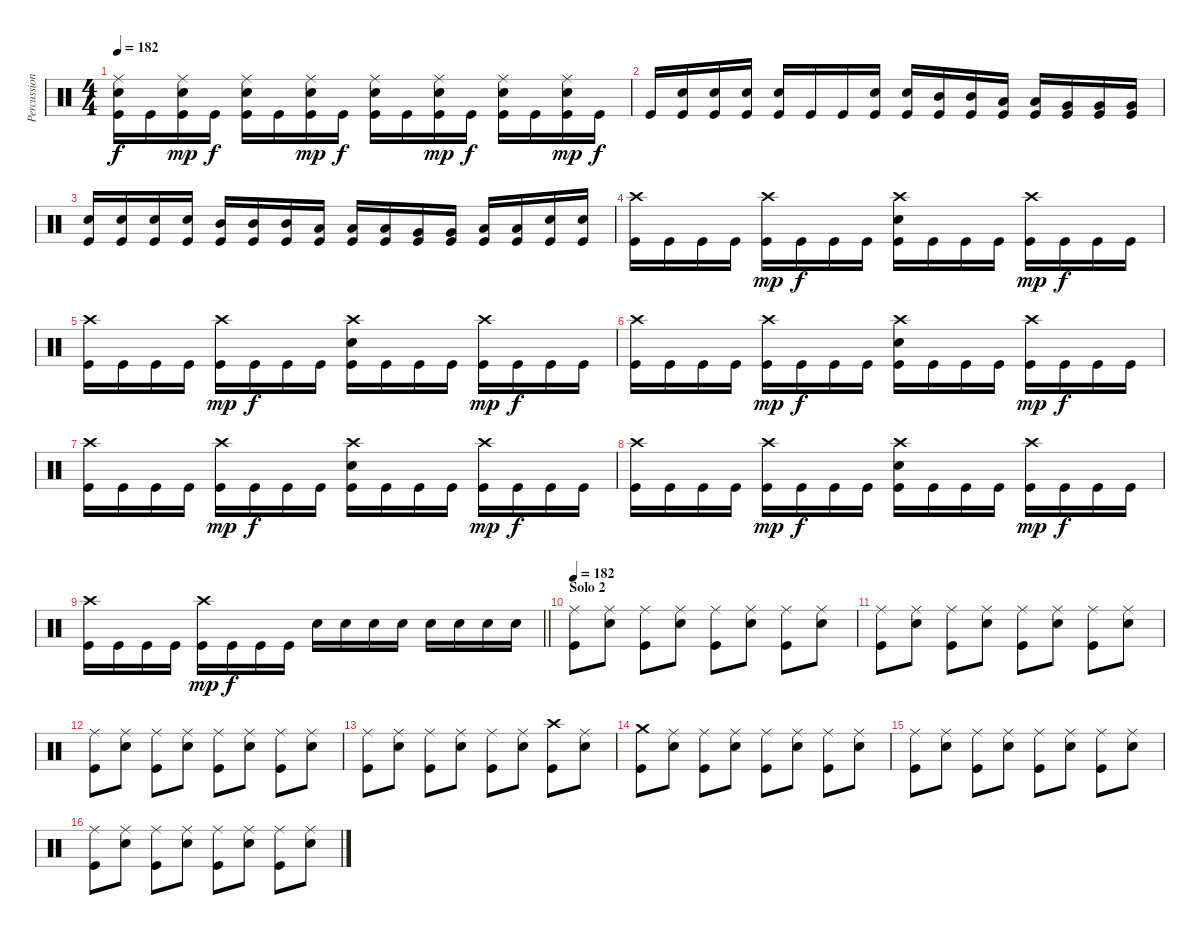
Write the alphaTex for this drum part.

\track ("Percussion" "Percussion") {instrument percussion}
\staff {score}
\articulation defaults
\ts (4 4)
\tempo 182
\clef neutral
\ks c
("Ride (middle)" "Snare (hit) 2" "Kick (hit)").16{dy f} "Kick (hit)".16 ("Ride (middle)" "Snare (hit) 2" "Kick (hit)").16{dy mp} "Kick (hit)".16{dy f} ("Ride (middle)" "Snare (hit) 2" "Kick (hit)").16 "Kick (hit)".16 ("Ride (middle)" "Snare (hit) 2" "Kick (hit)").16{dy mp} "Kick (hit)".16{dy f} ("Ride (middle)" "Snare (hit) 2" "Kick (hit)").16 "Kick (hit)".16 ("Ride (middle)" "Snare (hit) 2" "Kick (hit)").16{dy mp} "Kick (hit)".16{dy f} ("Ride (middle)" "Snare (hit) 2" "Kick (hit)").16 "Kick (hit)".16 ("Ride (middle)" "Snare (hit) 2" "Kick (hit)").16{dy mp} "Kick (hit)".16{dy f} |
"Kick (hit)".16 ("Kick (hit)" "Snare (hit) 2").16 ("Kick (hit)" "Snare (hit) 2").16 ("Kick (hit)" "Snare (hit) 2").16 ("Kick (hit)" "Snare (hit) 2").16 "Kick (hit)".16 "Kick (hit)".16 ("Kick (hit)" "Snare (hit) 2").16 ("Kick (hit)" "Snare (hit) 2").16 ("Kick (hit)" "Mid Tom (hit)").16 ("Kick (hit)" "Mid Tom (hit)").16 ("Kick (hit)" "Low Tom (hit)").16 ("Kick (hit)" "Low Tom (hit)").16 ("Kick (hit)" "Very Low Tom (hit)").16 ("Kick (hit)" "Very Low Tom (hit)").16 ("Kick (hit)" "Very Low Tom (hit)").16 |
("Snare (hit) 2" "Kick (hit)").16 ("Snare (hit) 2" "Kick (hit)").16 ("Snare (hit) 2" "Kick (hit)").16 ("Snare (hit) 2" "Kick (hit)").16 ("Mid Tom (hit)" "Kick (hit)").16 ("Mid Tom (hit)" "Kick (hit)").16 ("Mid Tom (hit)" "Kick (hit)").16 ("Low Tom (hit)" "Kick (hit)").16 ("Low Tom (hit)" "Kick (hit)").16 ("Low Tom (hit)" "Kick (hit)").16 ("Very Low Tom (hit)" "Kick (hit)").16 ("Very Low Tom (hit)" "Kick (hit)").16 ("Low Floor Tom (hit)" "Kick (hit)").16 ("Low Floor Tom (hit)" "Kick (hit)").16 ("Snare (hit) 2" "Kick (hit)").16 ("Snare (hit) 2" "Kick (hit)").16 |
("Crash high (hit)" "Kick (hit)").16 "Kick (hit)".16 "Kick (hit)".16 "Kick (hit)".16 ("Crash high (hit)" "Kick (hit)").16{dy mp} "Kick (hit)".16{dy f} "Kick (hit)".16 "Kick (hit)".16 ("Crash high (hit)" "Snare (hit) 2" "Kick (hit)").16 "Kick (hit)".16 "Kick (hit)".16 "Kick (hit)".16 ("Crash high (hit)" "Kick (hit)").16{dy mp} "Kick (hit)".16{dy f} "Kick (hit)".16 "Kick (hit)".16 |
("Crash high (hit)" "Kick (hit)").16 "Kick (hit)".16 "Kick (hit)".16 "Kick (hit)".16 ("Crash high (hit)" "Kick (hit)").16{dy mp} "Kick (hit)".16{dy f} "Kick (hit)".16 "Kick (hit)".16 ("Crash high (hit)" "Snare (hit) 2" "Kick (hit)").16 "Kick (hit)".16 "Kick (hit)".16 "Kick (hit)".16 ("Crash high (hit)" "Kick (hit)").16{dy mp} "Kick (hit)".16{dy f} "Kick (hit)".16 "Kick (hit)".16 |
("Crash high (hit)" "Kick (hit)").16 "Kick (hit)".16 "Kick (hit)".16 "Kick (hit)".16 ("Crash high (hit)" "Kick (hit)").16{dy mp} "Kick (hit)".16{dy f} "Kick (hit)".16 "Kick (hit)".16 ("Crash high (hit)" "Snare (hit) 2" "Kick (hit)").16 "Kick (hit)".16 "Kick (hit)".16 "Kick (hit)".16 ("Crash high (hit)" "Kick (hit)").16{dy mp} "Kick (hit)".16{dy f} "Kick (hit)".16 "Kick (hit)".16 |
("Crash high (hit)" "Kick (hit)").16 "Kick (hit)".16 "Kick (hit)".16 "Kick (hit)".16 ("Crash high (hit)" "Kick (hit)").16{dy mp} "Kick (hit)".16{dy f} "Kick (hit)".16 "Kick (hit)".16 ("Crash high (hit)" "Snare (hit) 2" "Kick (hit)").16 "Kick (hit)".16 "Kick (hit)".16 "Kick (hit)".16 ("Crash high (hit)" "Kick (hit)").16{dy mp} "Kick (hit)".16{dy f} "Kick (hit)".16 "Kick (hit)".16 |
("Crash high (hit)" "Kick (hit)").16 "Kick (hit)".16 "Kick (hit)".16 "Kick (hit)".16 ("Crash high (hit)" "Kick (hit)").16{dy mp} "Kick (hit)".16{dy f} "Kick (hit)".16 "Kick (hit)".16 ("Crash high (hit)" "Snare (hit) 2" "Kick (hit)").16 "Kick (hit)".16 "Kick (hit)".16 "Kick (hit)".16 ("Crash high (hit)" "Kick (hit)").16{dy mp} "Kick (hit)".16{dy f} "Kick (hit)".16 "Kick (hit)".16 |
\barLineRight lightlight
("Crash high (hit)" "Kick (hit)").16 "Kick (hit)".16 "Kick (hit)".16 "Kick (hit)".16 ("Crash high (hit)" "Kick (hit)").16{dy mp} "Kick (hit)".16{dy f} "Kick (hit)".16 "Kick (hit)".16 "Snare (hit) 2".16 "Snare (hit) 2".16 "Snare (hit) 2".16 "Snare (hit) 2".16 "Snare (hit) 2".16 "Snare (hit) 2".16 "Snare (hit) 2".16 "Snare (hit) 2".16 |
\section ("" "Solo 2")
\tempo 182
("Ride (middle)" "Kick (hit)").8 ("Ride (middle)" "Snare (hit) 2").8 ("Ride (middle)" "Kick (hit)").8 ("Ride (middle)" "Snare (hit) 2").8 ("Ride (middle)" "Kick (hit)").8 ("Ride (middle)" "Snare (hit) 2").8 ("Ride (middle)" "Kick (hit)").8 ("Ride (middle)" "Snare (hit) 2").8 |
("Ride (middle)" "Kick (hit)").8 ("Ride (middle)" "Snare (hit) 2").8 ("Ride (middle)" "Kick (hit)").8 ("Ride (middle)" "Snare (hit) 2").8 ("Ride (middle)" "Kick (hit)").8 ("Ride (middle)" "Snare (hit) 2").8 ("Ride (middle)" "Kick (hit)").8 ("Ride (middle)" "Snare (hit) 2").8 |
("Ride (middle)" "Kick (hit)").8 ("Ride (middle)" "Snare (hit) 2").8 ("Ride (middle)" "Kick (hit)").8 ("Ride (middle)" "Snare (hit) 2").8 ("Ride (middle)" "Kick (hit)").8 ("Ride (middle)" "Snare (hit) 2").8 ("Ride (middle)" "Kick (hit)").8 ("Ride (middle)" "Snare (hit) 2").8 |
("Ride (middle)" "Kick (hit)").8 ("Ride (middle)" "Snare (hit) 2").8 ("Ride (middle)" "Kick (hit)").8 ("Ride (middle)" "Snare (hit) 2").8 ("Ride (middle)" "Kick (hit)").8 ("Ride (middle)" "Snare (hit) 2").8 ("Crash high (hit)" "Kick (hit)").8 ("Ride (middle)" "Snare (hit) 2").8 |
("Crash medium (hit)" "Kick (hit)").8 ("Ride (middle)" "Snare (hit) 2").8 ("Ride (middle)" "Kick (hit)").8 ("Ride (middle)" "Snare (hit) 2").8 ("Ride (middle)" "Kick (hit)").8 ("Ride (middle)" "Snare (hit) 2").8 ("Ride (middle)" "Kick (hit)").8 ("Ride (middle)" "Snare (hit) 2").8 |
("Ride (middle)" "Kick (hit)").8 ("Ride (middle)" "Snare (hit) 2").8 ("Ride (middle)" "Kick (hit)").8 ("Ride (middle)" "Snare (hit) 2").8 ("Ride (middle)" "Kick (hit)").8 ("Ride (middle)" "Snare (hit) 2").8 ("Ride (middle)" "Kick (hit)").8 ("Ride (middle)" "Snare (hit) 2").8 |
("Ride (middle)" "Kick (hit)").8 ("Ride (middle)" "Snare (hit) 2").8 ("Ride (middle)" "Kick (hit)").8 ("Ride (middle)" "Snare (hit) 2").8 ("Ride (middle)" "Kick (hit)").8 ("Ride (middle)" "Snare (hit) 2").8 ("Ride (middle)" "Kick (hit)").8 ("Ride (middle)" "Snare (hit) 2").8
